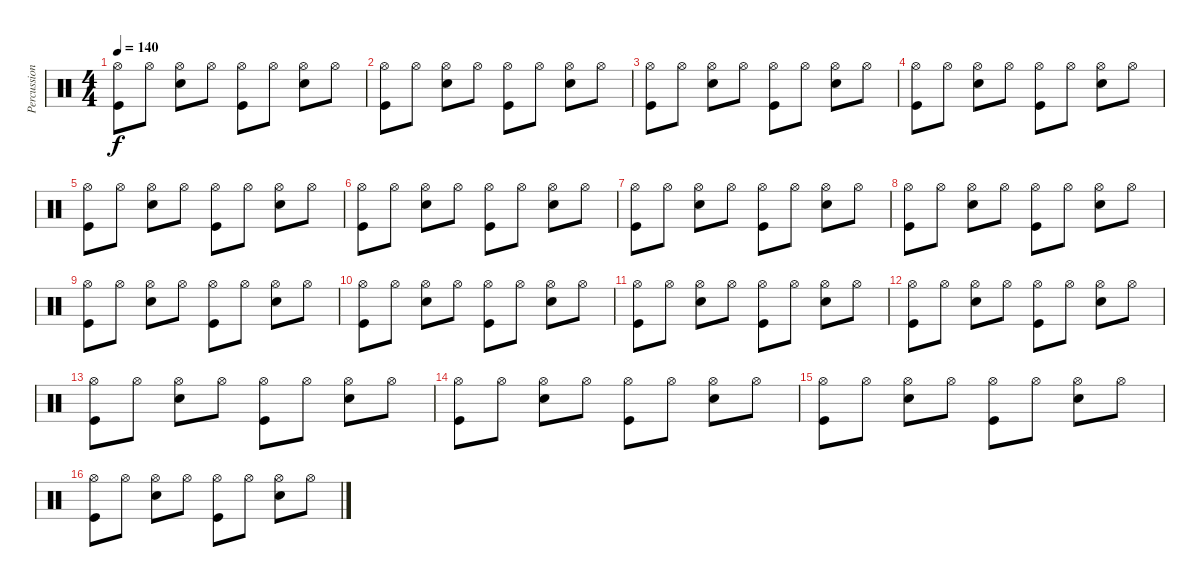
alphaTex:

\track ("Percussion" "Percussion") {instrument percussion}
\staff {score}
\articulation defaults
\ts (4 4)
\tempo 140
\clef neutral
\ks c
("Hi-Hat (open)" "Kick (hit)").8{dy f} "Hi-Hat (open)".8 ("Hi-Hat (open)" "Snare (hit) 2").8 "Hi-Hat (open)".8 ("Hi-Hat (open)" "Kick (hit)").8 "Hi-Hat (open)".8 ("Hi-Hat (open)" "Snare (hit) 2").8 "Hi-Hat (open)".8 |
("Hi-Hat (open)" "Kick (hit)").8 "Hi-Hat (open)".8 ("Hi-Hat (open)" "Snare (hit) 2").8 "Hi-Hat (open)".8 ("Hi-Hat (open)" "Kick (hit)").8 "Hi-Hat (open)".8 ("Hi-Hat (open)" "Snare (hit) 2").8 "Hi-Hat (open)".8 |
("Hi-Hat (open)" "Kick (hit)").8 "Hi-Hat (open)".8 ("Hi-Hat (open)" "Snare (hit) 2").8 "Hi-Hat (open)".8 ("Hi-Hat (open)" "Kick (hit)").8 "Hi-Hat (open)".8 ("Hi-Hat (open)" "Snare (hit) 2").8 "Hi-Hat (open)".8 |
("Hi-Hat (open)" "Kick (hit)").8 "Hi-Hat (open)".8 ("Hi-Hat (open)" "Snare (hit) 2").8 "Hi-Hat (open)".8 ("Hi-Hat (open)" "Kick (hit)").8 "Hi-Hat (open)".8 ("Hi-Hat (open)" "Snare (hit) 2").8 "Hi-Hat (open)".8 |
("Hi-Hat (open)" "Kick (hit)").8 "Hi-Hat (open)".8 ("Hi-Hat (open)" "Snare (hit) 2").8 "Hi-Hat (open)".8 ("Hi-Hat (open)" "Kick (hit)").8 "Hi-Hat (open)".8 ("Hi-Hat (open)" "Snare (hit) 2").8 "Hi-Hat (open)".8 |
("Hi-Hat (open)" "Kick (hit)").8 "Hi-Hat (open)".8 ("Hi-Hat (open)" "Snare (hit) 2").8 "Hi-Hat (open)".8 ("Hi-Hat (open)" "Kick (hit)").8 "Hi-Hat (open)".8 ("Hi-Hat (open)" "Snare (hit) 2").8 "Hi-Hat (open)".8 |
("Hi-Hat (open)" "Kick (hit)").8 "Hi-Hat (open)".8 ("Hi-Hat (open)" "Snare (hit) 2").8 "Hi-Hat (open)".8 ("Hi-Hat (open)" "Kick (hit)").8 "Hi-Hat (open)".8 ("Hi-Hat (open)" "Snare (hit) 2").8 "Hi-Hat (open)".8 |
("Hi-Hat (open)" "Kick (hit)").8 "Hi-Hat (open)".8 ("Hi-Hat (open)" "Snare (hit) 2").8 "Hi-Hat (open)".8 ("Hi-Hat (open)" "Kick (hit)").8 "Hi-Hat (open)".8 ("Hi-Hat (open)" "Snare (hit) 2").8 "Hi-Hat (open)".8 |
("Hi-Hat (open)" "Kick (hit)").8 "Hi-Hat (open)".8 ("Hi-Hat (open)" "Snare (hit) 2").8 "Hi-Hat (open)".8 ("Hi-Hat (open)" "Kick (hit)").8 "Hi-Hat (open)".8 ("Hi-Hat (open)" "Snare (hit) 2").8 "Hi-Hat (open)".8 |
("Hi-Hat (open)" "Kick (hit)").8 "Hi-Hat (open)".8 ("Hi-Hat (open)" "Snare (hit) 2").8 "Hi-Hat (open)".8 ("Hi-Hat (open)" "Kick (hit)").8 "Hi-Hat (open)".8 ("Hi-Hat (open)" "Snare (hit) 2").8 "Hi-Hat (open)".8 |
("Hi-Hat (open)" "Kick (hit)").8 "Hi-Hat (open)".8 ("Hi-Hat (open)" "Snare (hit) 2").8 "Hi-Hat (open)".8 ("Hi-Hat (open)" "Kick (hit)").8 "Hi-Hat (open)".8 ("Hi-Hat (open)" "Snare (hit) 2").8 "Hi-Hat (open)".8 |
("Hi-Hat (open)" "Kick (hit)").8 "Hi-Hat (open)".8 ("Hi-Hat (open)" "Snare (hit) 2").8 "Hi-Hat (open)".8 ("Hi-Hat (open)" "Kick (hit)").8 "Hi-Hat (open)".8 ("Hi-Hat (open)" "Snare (hit) 2").8 "Hi-Hat (open)".8 |
("Hi-Hat (open)" "Kick (hit)").8 "Hi-Hat (open)".8 ("Hi-Hat (open)" "Snare (hit) 2").8 "Hi-Hat (open)".8 ("Hi-Hat (open)" "Kick (hit)").8 "Hi-Hat (open)".8 ("Hi-Hat (open)" "Snare (hit) 2").8 "Hi-Hat (open)".8 |
("Hi-Hat (open)" "Kick (hit)").8 "Hi-Hat (open)".8 ("Hi-Hat (open)" "Snare (hit) 2").8 "Hi-Hat (open)".8 ("Hi-Hat (open)" "Kick (hit)").8 "Hi-Hat (open)".8 ("Hi-Hat (open)" "Snare (hit) 2").8 "Hi-Hat (open)".8 |
("Hi-Hat (open)" "Kick (hit)").8 "Hi-Hat (open)".8 ("Hi-Hat (open)" "Snare (hit) 2").8 "Hi-Hat (open)".8 ("Hi-Hat (open)" "Kick (hit)").8 "Hi-Hat (open)".8 ("Hi-Hat (open)" "Snare (hit) 2").8 "Hi-Hat (open)".8 |
("Hi-Hat (open)" "Kick (hit)").8 "Hi-Hat (open)".8 ("Hi-Hat (open)" "Snare (hit) 2").8 "Hi-Hat (open)".8 ("Hi-Hat (open)" "Kick (hit)").8 "Hi-Hat (open)".8 ("Hi-Hat (open)" "Snare (hit) 2").8 "Hi-Hat (open)".8
